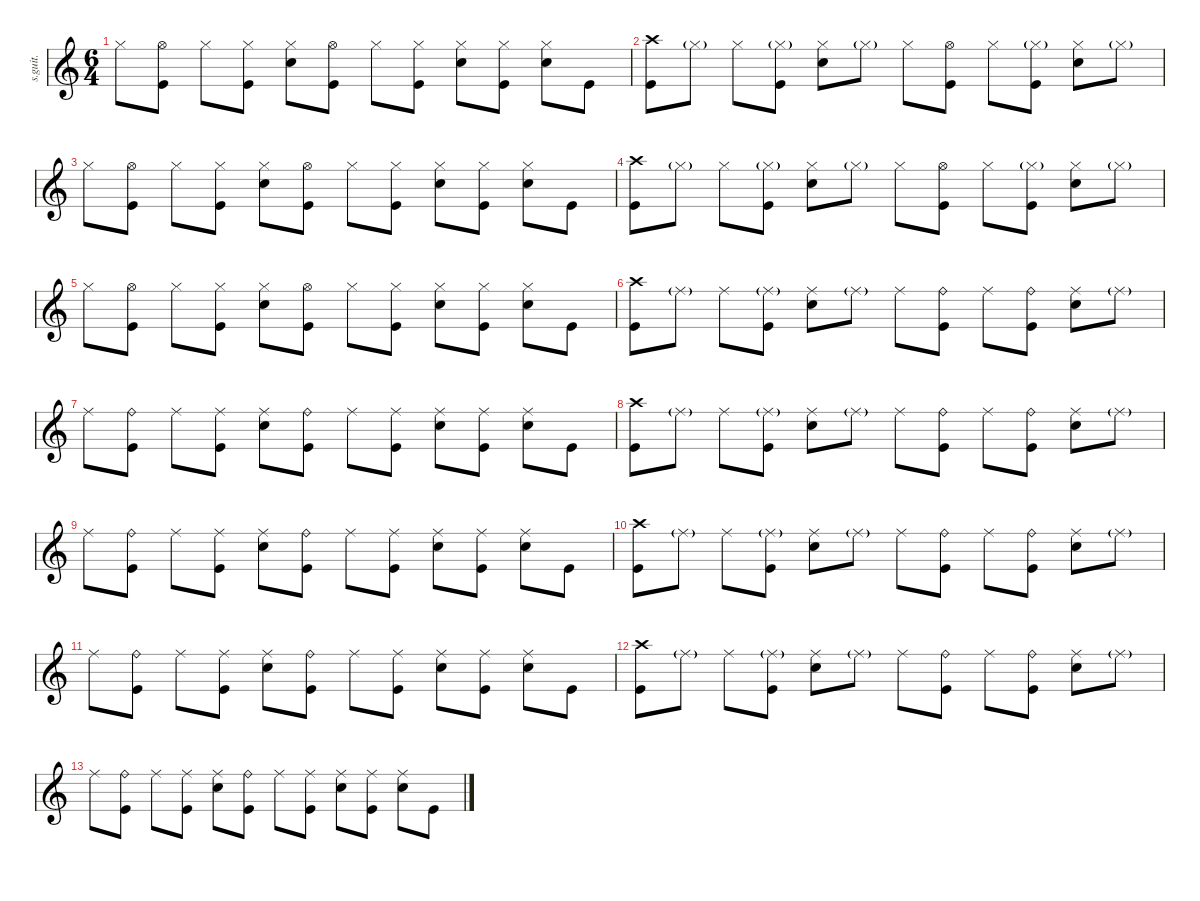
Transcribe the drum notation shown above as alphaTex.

\defaultSystemsLayout 4
\hideDynamics
\bracketExtendMode nobrackets
\track ("Steve Lamos" "s.guit.") {instrument percussion}
\staff {score}
\articulation defaults
\ts (6 4)
\tempo (144 hide)
\clef g2
\ks c "Hi-Hat (closed)".8{lyrics (0 "") lyrics (1 "") lyrics (2 "") lyrics (3 "") lyrics (4 "") dy mf}
("Hi-Hat (open)" "Kick (hit)").8{lyrics (0 "") lyrics (1 "") lyrics (2 "") lyrics (3 "") lyrics (4 "")} "Hi-Hat (closed)".8{lyrics (0 "") lyrics (1 "") lyrics (2 "") lyrics (3 "") lyrics (4 "")} ("Hi-Hat (closed)" "Kick (hit)").8{lyrics (0 "") lyrics (1 "") lyrics (2 "") lyrics (3 "") lyrics (4 "")} ("Hi-Hat (closed)" "Snare (hit) 2").8{lyrics (0 "") lyrics (1 "") lyrics (2 "") lyrics (3 "") lyrics (4 "")} ("Hi-Hat (open)" "Kick (hit)").8{lyrics (0 "") lyrics (1 "") lyrics (2 "") lyrics (3 "") lyrics (4 "")} "Hi-Hat (closed)".8{lyrics (0 "") lyrics (1 "") lyrics (2 "") lyrics (3 "") lyrics (4 "")} ("Hi-Hat (closed)" "Kick (hit)").8{lyrics (0 "") lyrics (1 "") lyrics (2 "") lyrics (3 "") lyrics (4 "")} ("Hi-Hat (closed)" "Snare (hit) 2").8{lyrics (0 "") lyrics (1 "") lyrics (2 "") lyrics (3 "") lyrics (4 "")} ("Hi-Hat (closed)" "Kick (hit)").8{lyrics (0 "") lyrics (1 "") lyrics (2 "") lyrics (3 "") lyrics (4 "") dy f} ("Hi-Hat (closed)" "Snare (hit) 2").8{lyrics (0 "") lyrics (1 "") lyrics (2 "") lyrics (3 "") lyrics (4 "")} "Kick (hit)".8{lyrics (0 "") lyrics (1 "") lyrics (2 "") lyrics (3 "") lyrics (4 "")} |
("Crash high (hit)" "Kick (hit)").8{lyrics (0 "") lyrics (1 "") lyrics (2 "") lyrics (3 "") lyrics (4 "") dy mf} "Hi-Hat (closed)"{g}.8{lyrics (0 "") lyrics (1 "") lyrics (2 "") lyrics (3 "") lyrics (4 "") dy ff} "Hi-Hat (closed)".8{lyrics (0 "") lyrics (1 "") lyrics (2 "") lyrics (3 "") lyrics (4 "") dy mf} ("Hi-Hat (closed)"{g} "Kick (hit)").8{lyrics (0 "") lyrics (1 "") lyrics (2 "") lyrics (3 "") lyrics (4 "")} ("Hi-Hat (closed)" "Snare (hit) 2").8{lyrics (0 "") lyrics (1 "") lyrics (2 "") lyrics (3 "") lyrics (4 "")} "Hi-Hat (closed)"{g}.8{lyrics (0 "") lyrics (1 "") lyrics (2 "") lyrics (3 "") lyrics (4 "") dy ff} "Hi-Hat (closed)".8{lyrics (0 "") lyrics (1 "") lyrics (2 "") lyrics (3 "") lyrics (4 "") dy mf} ("Hi-Hat (open)" "Kick (hit)").8{lyrics (0 "") lyrics (1 "") lyrics (2 "") lyrics (3 "") lyrics (4 "")} "Hi-Hat (closed)".8{lyrics (0 "") lyrics (1 "") lyrics (2 "") lyrics (3 "") lyrics (4 "")} ("Hi-Hat (closed)"{g} "Kick (hit)").8{lyrics (0 "") lyrics (1 "") lyrics (2 "") lyrics (3 "") lyrics (4 "")} ("Hi-Hat (closed)" "Snare (hit) 2").8{lyrics (0 "") lyrics (1 "") lyrics (2 "") lyrics (3 "") lyrics (4 "")} "Hi-Hat (closed)"{g}.8{lyrics (0 "") lyrics (1 "") lyrics (2 "") lyrics (3 "") lyrics (4 "") dy ff} |
"Hi-Hat (closed)".8{lyrics (0 "") lyrics (1 "") lyrics (2 "") lyrics (3 "") lyrics (4 "") dy mf} ("Hi-Hat (open)" "Kick (hit)").8{lyrics (0 "") lyrics (1 "") lyrics (2 "") lyrics (3 "") lyrics (4 "")} "Hi-Hat (closed)".8{lyrics (0 "") lyrics (1 "") lyrics (2 "") lyrics (3 "") lyrics (4 "")} ("Hi-Hat (closed)" "Kick (hit)").8{lyrics (0 "") lyrics (1 "") lyrics (2 "") lyrics (3 "") lyrics (4 "")} ("Hi-Hat (closed)" "Snare (hit) 2").8{lyrics (0 "") lyrics (1 "") lyrics (2 "") lyrics (3 "") lyrics (4 "")} ("Hi-Hat (open)" "Kick (hit)").8{lyrics (0 "") lyrics (1 "") lyrics (2 "") lyrics (3 "") lyrics (4 "")} "Hi-Hat (closed)".8{lyrics (0 "") lyrics (1 "") lyrics (2 "") lyrics (3 "") lyrics (4 "")} ("Hi-Hat (closed)" "Kick (hit)").8{lyrics (0 "") lyrics (1 "") lyrics (2 "") lyrics (3 "") lyrics (4 "")} ("Hi-Hat (closed)" "Snare (hit) 2").8{lyrics (0 "") lyrics (1 "") lyrics (2 "") lyrics (3 "") lyrics (4 "")} ("Hi-Hat (closed)" "Kick (hit)").8{lyrics (0 "") lyrics (1 "") lyrics (2 "") lyrics (3 "") lyrics (4 "") dy f} ("Hi-Hat (closed)" "Snare (hit) 2").8{lyrics (0 "") lyrics (1 "") lyrics (2 "") lyrics (3 "") lyrics (4 "")} "Kick (hit)".8{lyrics (0 "") lyrics (1 "") lyrics (2 "") lyrics (3 "") lyrics (4 "")} |
("Crash high (hit)" "Kick (hit)").8{lyrics (0 "") lyrics (1 "") lyrics (2 "") lyrics (3 "") lyrics (4 "") dy mf} "Hi-Hat (closed)"{g}.8{lyrics (0 "") lyrics (1 "") lyrics (2 "") lyrics (3 "") lyrics (4 "") dy ff} "Hi-Hat (closed)".8{lyrics (0 "") lyrics (1 "") lyrics (2 "") lyrics (3 "") lyrics (4 "") dy mf} ("Hi-Hat (closed)"{g} "Kick (hit)").8{lyrics (0 "") lyrics (1 "") lyrics (2 "") lyrics (3 "") lyrics (4 "")} ("Hi-Hat (closed)" "Snare (hit) 2").8{lyrics (0 "") lyrics (1 "") lyrics (2 "") lyrics (3 "") lyrics (4 "")} "Hi-Hat (closed)"{g}.8{lyrics (0 "") lyrics (1 "") lyrics (2 "") lyrics (3 "") lyrics (4 "") dy ff} "Hi-Hat (closed)".8{lyrics (0 "") lyrics (1 "") lyrics (2 "") lyrics (3 "") lyrics (4 "") dy mf} ("Hi-Hat (open)" "Kick (hit)").8{lyrics (0 "") lyrics (1 "") lyrics (2 "") lyrics (3 "") lyrics (4 "")} "Hi-Hat (closed)".8{lyrics (0 "") lyrics (1 "") lyrics (2 "") lyrics (3 "") lyrics (4 "")} ("Hi-Hat (closed)"{g} "Kick (hit)").8{lyrics (0 "") lyrics (1 "") lyrics (2 "") lyrics (3 "") lyrics (4 "")} ("Hi-Hat (closed)" "Snare (hit) 2").8{lyrics (0 "") lyrics (1 "") lyrics (2 "") lyrics (3 "") lyrics (4 "")} "Hi-Hat (closed)"{g}.8{lyrics (0 "") lyrics (1 "") lyrics (2 "") lyrics (3 "") lyrics (4 "") dy ff} |
"Hi-Hat (closed)".8{lyrics (0 "") lyrics (1 "") lyrics (2 "") lyrics (3 "") lyrics (4 "") dy mf} ("Hi-Hat (open)" "Kick (hit)").8{lyrics (0 "") lyrics (1 "") lyrics (2 "") lyrics (3 "") lyrics (4 "")} "Hi-Hat (closed)".8{lyrics (0 "") lyrics (1 "") lyrics (2 "") lyrics (3 "") lyrics (4 "")} ("Hi-Hat (closed)" "Kick (hit)").8{lyrics (0 "") lyrics (1 "") lyrics (2 "") lyrics (3 "") lyrics (4 "")} ("Hi-Hat (closed)" "Snare (hit) 2").8{lyrics (0 "") lyrics (1 "") lyrics (2 "") lyrics (3 "") lyrics (4 "")} ("Hi-Hat (open)" "Kick (hit)").8{lyrics (0 "") lyrics (1 "") lyrics (2 "") lyrics (3 "") lyrics (4 "")} "Hi-Hat (closed)".8{lyrics (0 "") lyrics (1 "") lyrics (2 "") lyrics (3 "") lyrics (4 "")} ("Hi-Hat (closed)" "Kick (hit)").8{lyrics (0 "") lyrics (1 "") lyrics (2 "") lyrics (3 "") lyrics (4 "")} ("Hi-Hat (closed)" "Snare (hit) 2").8{lyrics (0 "") lyrics (1 "") lyrics (2 "") lyrics (3 "") lyrics (4 "")} ("Hi-Hat (closed)" "Kick (hit)").8{lyrics (0 "") lyrics (1 "") lyrics (2 "") lyrics (3 "") lyrics (4 "") dy f} ("Hi-Hat (closed)" "Snare (hit) 2").8{lyrics (0 "") lyrics (1 "") lyrics (2 "") lyrics (3 "") lyrics (4 "")} "Kick (hit)".8{lyrics (0 "") lyrics (1 "") lyrics (2 "") lyrics (3 "") lyrics (4 "")} |
("Crash high (hit)" "Kick (hit)").8{lyrics (0 "") lyrics (1 "") lyrics (2 "") lyrics (3 "") lyrics (4 "") dy mf} "Ride (middle)"{g}.8{lyrics (0 "") lyrics (1 "") lyrics (2 "") lyrics (3 "") lyrics (4 "") dy ff} "Ride (middle)".8{lyrics (0 "") lyrics (1 "") lyrics (2 "") lyrics (3 "") lyrics (4 "") dy mf} ("Ride (middle)"{g} "Kick (hit)").8{lyrics (0 "") lyrics (1 "") lyrics (2 "") lyrics (3 "") lyrics (4 "")} ("Ride (middle)" "Snare (hit) 2").8{lyrics (0 "") lyrics (1 "") lyrics (2 "") lyrics (3 "") lyrics (4 "")} "Ride (middle)"{g}.8{lyrics (0 "") lyrics (1 "") lyrics (2 "") lyrics (3 "") lyrics (4 "") dy ff} "Ride (middle)".8{lyrics (0 "") lyrics (1 "") lyrics (2 "") lyrics (3 "") lyrics (4 "") dy mf} ("Ride (bell)" "Kick (hit)").8{lyrics (0 "") lyrics (1 "") lyrics (2 "") lyrics (3 "") lyrics (4 "")} "Ride (middle)".8{lyrics (0 "") lyrics (1 "") lyrics (2 "") lyrics (3 "") lyrics (4 "")} ("Ride (bell)" "Kick (hit)").8{lyrics (0 "") lyrics (1 "") lyrics (2 "") lyrics (3 "") lyrics (4 "") dy f} ("Ride (middle)" "Snare (hit) 2").8{lyrics (0 "") lyrics (1 "") lyrics (2 "") lyrics (3 "") lyrics (4 "") dy mf} "Ride (middle)"{g}.8{lyrics (0 "") lyrics (1 "") lyrics (2 "") lyrics (3 "") lyrics (4 "") dy ff} |
"Ride (middle)".8{lyrics (0 "") lyrics (1 "") lyrics (2 "") lyrics (3 "") lyrics (4 "") dy mf} ("Ride (bell)" "Kick (hit)").8{lyrics (0 "") lyrics (1 "") lyrics (2 "") lyrics (3 "") lyrics (4 "")} "Ride (middle)".8{lyrics (0 "") lyrics (1 "") lyrics (2 "") lyrics (3 "") lyrics (4 "")} ("Ride (middle)" "Kick (hit)").8{lyrics (0 "") lyrics (1 "") lyrics (2 "") lyrics (3 "") lyrics (4 "")} ("Ride (middle)" "Snare (hit) 2").8{lyrics (0 "") lyrics (1 "") lyrics (2 "") lyrics (3 "") lyrics (4 "")} ("Ride (bell)" "Kick (hit)").8{lyrics (0 "") lyrics (1 "") lyrics (2 "") lyrics (3 "") lyrics (4 "") dy f} "Ride (middle)".8{lyrics (0 "") lyrics (1 "") lyrics (2 "") lyrics (3 "") lyrics (4 "") dy mf} ("Ride (middle)" "Kick (hit)").8{lyrics (0 "") lyrics (1 "") lyrics (2 "") lyrics (3 "") lyrics (4 "")} ("Ride (middle)" "Snare (hit) 2").8{lyrics (0 "") lyrics (1 "") lyrics (2 "") lyrics (3 "") lyrics (4 "")} ("Ride (middle)" "Kick (hit)").8{lyrics (0 "") lyrics (1 "") lyrics (2 "") lyrics (3 "") lyrics (4 "") dy f} ("Ride (middle)" "Snare (hit) 2").8{lyrics (0 "") lyrics (1 "") lyrics (2 "") lyrics (3 "") lyrics (4 "")} "Kick (hit)".8{lyrics (0 "") lyrics (1 "") lyrics (2 "") lyrics (3 "") lyrics (4 "")} |
("Crash high (hit)" "Kick (hit)").8{lyrics (0 "") lyrics (1 "") lyrics (2 "") lyrics (3 "") lyrics (4 "") dy mf} "Ride (middle)"{g}.8{lyrics (0 "") lyrics (1 "") lyrics (2 "") lyrics (3 "") lyrics (4 "") dy ff} "Ride (middle)".8{lyrics (0 "") lyrics (1 "") lyrics (2 "") lyrics (3 "") lyrics (4 "") dy mf} ("Ride (middle)"{g} "Kick (hit)").8{lyrics (0 "") lyrics (1 "") lyrics (2 "") lyrics (3 "") lyrics (4 "")} ("Ride (middle)" "Snare (hit) 2").8{lyrics (0 "") lyrics (1 "") lyrics (2 "") lyrics (3 "") lyrics (4 "")} "Ride (middle)"{g}.8{lyrics (0 "") lyrics (1 "") lyrics (2 "") lyrics (3 "") lyrics (4 "") dy ff} "Ride (middle)".8{lyrics (0 "") lyrics (1 "") lyrics (2 "") lyrics (3 "") lyrics (4 "") dy mf} ("Ride (bell)" "Kick (hit)").8{lyrics (0 "") lyrics (1 "") lyrics (2 "") lyrics (3 "") lyrics (4 "")} "Ride (middle)".8{lyrics (0 "") lyrics (1 "") lyrics (2 "") lyrics (3 "") lyrics (4 "")} ("Ride (bell)" "Kick (hit)").8{lyrics (0 "") lyrics (1 "") lyrics (2 "") lyrics (3 "") lyrics (4 "") dy f} ("Ride (middle)" "Snare (hit) 2").8{lyrics (0 "") lyrics (1 "") lyrics (2 "") lyrics (3 "") lyrics (4 "") dy mf} "Ride (middle)"{g}.8{lyrics (0 "") lyrics (1 "") lyrics (2 "") lyrics (3 "") lyrics (4 "") dy ff} |
"Ride (middle)".8{lyrics (0 "") lyrics (1 "") lyrics (2 "") lyrics (3 "") lyrics (4 "") dy mf} ("Ride (bell)" "Kick (hit)").8{lyrics (0 "") lyrics (1 "") lyrics (2 "") lyrics (3 "") lyrics (4 "")} "Ride (middle)".8{lyrics (0 "") lyrics (1 "") lyrics (2 "") lyrics (3 "") lyrics (4 "")} ("Ride (middle)" "Kick (hit)").8{lyrics (0 "") lyrics (1 "") lyrics (2 "") lyrics (3 "") lyrics (4 "")} ("Ride (middle)" "Snare (hit) 2").8{lyrics (0 "") lyrics (1 "") lyrics (2 "") lyrics (3 "") lyrics (4 "")} ("Ride (bell)" "Kick (hit)").8{lyrics (0 "") lyrics (1 "") lyrics (2 "") lyrics (3 "") lyrics (4 "") dy f} "Ride (middle)".8{lyrics (0 "") lyrics (1 "") lyrics (2 "") lyrics (3 "") lyrics (4 "") dy mf} ("Ride (middle)" "Kick (hit)").8{lyrics (0 "") lyrics (1 "") lyrics (2 "") lyrics (3 "") lyrics (4 "")} ("Ride (middle)" "Snare (hit) 2").8{lyrics (0 "") lyrics (1 "") lyrics (2 "") lyrics (3 "") lyrics (4 "")} ("Ride (middle)" "Kick (hit)").8{lyrics (0 "") lyrics (1 "") lyrics (2 "") lyrics (3 "") lyrics (4 "") dy f} ("Ride (middle)" "Snare (hit) 2").8{lyrics (0 "") lyrics (1 "") lyrics (2 "") lyrics (3 "") lyrics (4 "")} "Kick (hit)".8{lyrics (0 "") lyrics (1 "") lyrics (2 "") lyrics (3 "") lyrics (4 "")} |
("Crash high (hit)" "Kick (hit)").8{lyrics (0 "") lyrics (1 "") lyrics (2 "") lyrics (3 "") lyrics (4 "") dy mf} "Ride (middle)"{g}.8{lyrics (0 "") lyrics (1 "") lyrics (2 "") lyrics (3 "") lyrics (4 "") dy ff} "Ride (middle)".8{lyrics (0 "") lyrics (1 "") lyrics (2 "") lyrics (3 "") lyrics (4 "") dy mf} ("Ride (middle)"{g} "Kick (hit)").8{lyrics (0 "") lyrics (1 "") lyrics (2 "") lyrics (3 "") lyrics (4 "")} ("Ride (middle)" "Snare (hit) 2").8{lyrics (0 "") lyrics (1 "") lyrics (2 "") lyrics (3 "") lyrics (4 "")} "Ride (middle)"{g}.8{lyrics (0 "") lyrics (1 "") lyrics (2 "") lyrics (3 "") lyrics (4 "") dy ff} "Ride (middle)".8{lyrics (0 "") lyrics (1 "") lyrics (2 "") lyrics (3 "") lyrics (4 "") dy mf} ("Ride (bell)" "Kick (hit)").8{lyrics (0 "") lyrics (1 "") lyrics (2 "") lyrics (3 "") lyrics (4 "")} "Ride (middle)".8{lyrics (0 "") lyrics (1 "") lyrics (2 "") lyrics (3 "") lyrics (4 "")} ("Ride (bell)" "Kick (hit)").8{lyrics (0 "") lyrics (1 "") lyrics (2 "") lyrics (3 "") lyrics (4 "") dy f} ("Ride (middle)" "Snare (hit) 2").8{lyrics (0 "") lyrics (1 "") lyrics (2 "") lyrics (3 "") lyrics (4 "") dy mf} "Ride (middle)"{g}.8{lyrics (0 "") lyrics (1 "") lyrics (2 "") lyrics (3 "") lyrics (4 "") dy ff} |
"Ride (middle)".8{lyrics (0 "") lyrics (1 "") lyrics (2 "") lyrics (3 "") lyrics (4 "") dy mf} ("Ride (bell)" "Kick (hit)").8{lyrics (0 "") lyrics (1 "") lyrics (2 "") lyrics (3 "") lyrics (4 "")} "Ride (middle)".8{lyrics (0 "") lyrics (1 "") lyrics (2 "") lyrics (3 "") lyrics (4 "")} ("Ride (middle)" "Kick (hit)").8{lyrics (0 "") lyrics (1 "") lyrics (2 "") lyrics (3 "") lyrics (4 "")} ("Ride (middle)" "Snare (hit) 2").8{lyrics (0 "") lyrics (1 "") lyrics (2 "") lyrics (3 "") lyrics (4 "")} ("Ride (bell)" "Kick (hit)").8{lyrics (0 "") lyrics (1 "") lyrics (2 "") lyrics (3 "") lyrics (4 "") dy f} "Ride (middle)".8{lyrics (0 "") lyrics (1 "") lyrics (2 "") lyrics (3 "") lyrics (4 "") dy mf} ("Ride (middle)" "Kick (hit)").8{lyrics (0 "") lyrics (1 "") lyrics (2 "") lyrics (3 "") lyrics (4 "")} ("Ride (middle)" "Snare (hit) 2").8{lyrics (0 "") lyrics (1 "") lyrics (2 "") lyrics (3 "") lyrics (4 "")} ("Ride (middle)" "Kick (hit)").8{lyrics (0 "") lyrics (1 "") lyrics (2 "") lyrics (3 "") lyrics (4 "") dy f} ("Ride (middle)" "Snare (hit) 2").8{lyrics (0 "") lyrics (1 "") lyrics (2 "") lyrics (3 "") lyrics (4 "")} "Kick (hit)".8{lyrics (0 "") lyrics (1 "") lyrics (2 "") lyrics (3 "") lyrics (4 "")} |
("Crash high (hit)" "Kick (hit)").8{lyrics (0 "") lyrics (1 "") lyrics (2 "") lyrics (3 "") lyrics (4 "") dy mf} "Ride (middle)"{g}.8{lyrics (0 "") lyrics (1 "") lyrics (2 "") lyrics (3 "") lyrics (4 "") dy ff} "Ride (middle)".8{lyrics (0 "") lyrics (1 "") lyrics (2 "") lyrics (3 "") lyrics (4 "") dy mf} ("Ride (middle)"{g} "Kick (hit)").8{lyrics (0 "") lyrics (1 "") lyrics (2 "") lyrics (3 "") lyrics (4 "")} ("Ride (middle)" "Snare (hit) 2").8{lyrics (0 "") lyrics (1 "") lyrics (2 "") lyrics (3 "") lyrics (4 "")} "Ride (middle)"{g}.8{lyrics (0 "") lyrics (1 "") lyrics (2 "") lyrics (3 "") lyrics (4 "") dy ff} "Ride (middle)".8{lyrics (0 "") lyrics (1 "") lyrics (2 "") lyrics (3 "") lyrics (4 "") dy mf} ("Ride (bell)" "Kick (hit)").8{lyrics (0 "") lyrics (1 "") lyrics (2 "") lyrics (3 "") lyrics (4 "")} "Ride (middle)".8{lyrics (0 "") lyrics (1 "") lyrics (2 "") lyrics (3 "") lyrics (4 "")} ("Ride (bell)" "Kick (hit)").8{lyrics (0 "") lyrics (1 "") lyrics (2 "") lyrics (3 "") lyrics (4 "") dy f} ("Ride (middle)" "Snare (hit) 2").8{lyrics (0 "") lyrics (1 "") lyrics (2 "") lyrics (3 "") lyrics (4 "") dy mf} "Ride (middle)"{g}.8{lyrics (0 "") lyrics (1 "") lyrics (2 "") lyrics (3 "") lyrics (4 "") dy ff} |
"Ride (middle)".8{lyrics (0 "") lyrics (1 "") lyrics (2 "") lyrics (3 "") lyrics (4 "") dy mf} ("Ride (bell)" "Kick (hit)").8{lyrics (0 "") lyrics (1 "") lyrics (2 "") lyrics (3 "") lyrics (4 "")} "Ride (middle)".8{lyrics (0 "") lyrics (1 "") lyrics (2 "") lyrics (3 "") lyrics (4 "")} ("Ride (middle)" "Kick (hit)").8{lyrics (0 "") lyrics (1 "") lyrics (2 "") lyrics (3 "") lyrics (4 "")} ("Ride (middle)" "Snare (hit) 2").8{lyrics (0 "") lyrics (1 "") lyrics (2 "") lyrics (3 "") lyrics (4 "")} ("Ride (bell)" "Kick (hit)").8{lyrics (0 "") lyrics (1 "") lyrics (2 "") lyrics (3 "") lyrics (4 "") dy f} "Ride (middle)".8{lyrics (0 "") lyrics (1 "") lyrics (2 "") lyrics (3 "") lyrics (4 "") dy mf} ("Ride (middle)" "Kick (hit)").8{lyrics (0 "") lyrics (1 "") lyrics (2 "") lyrics (3 "") lyrics (4 "")} ("Ride (middle)" "Snare (hit) 2").8{lyrics (0 "") lyrics (1 "") lyrics (2 "") lyrics (3 "") lyrics (4 "")} ("Ride (middle)" "Kick (hit)").8{lyrics (0 "") lyrics (1 "") lyrics (2 "") lyrics (3 "") lyrics (4 "") dy f} ("Ride (middle)" "Snare (hit) 2").8{lyrics (0 "") lyrics (1 "") lyrics (2 "") lyrics (3 "") lyrics (4 "")} "Kick (hit)".8{lyrics (0 "") lyrics (1 "") lyrics (2 "") lyrics (3 "") lyrics (4 "")}
